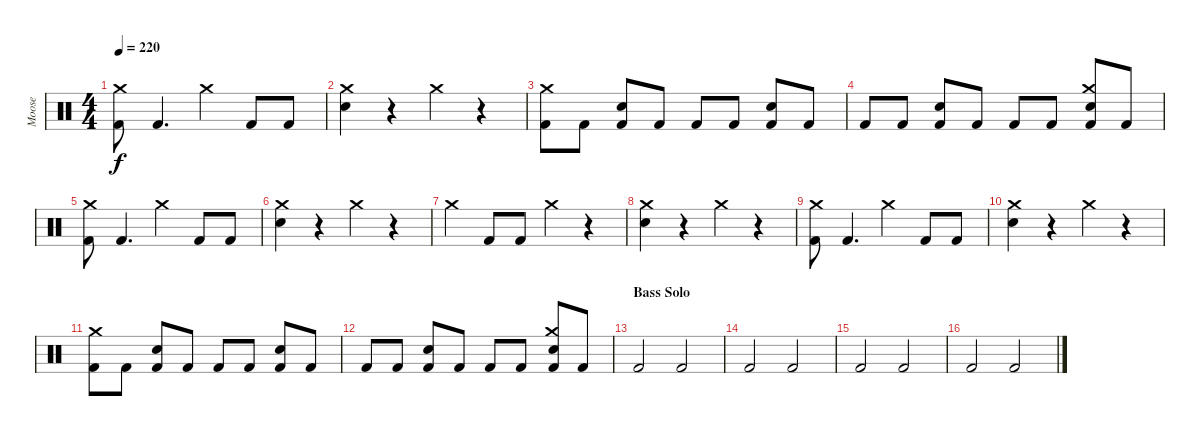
\track ("Moose" "Moose") {instrument percussion}
\staff {score}
\articulation defaults
\ts (4 4)
\tempo 220
\clef neutral
\ks c
("Kick (hit) 2" "Crash medium (hit)").8{dy f} "Kick (hit) 2".4{d} "Crash medium (hit)".4 "Kick (hit) 2".8 "Kick (hit) 2".8 |
("Snare (hit) 2" "Crash medium (hit)").4 r.4 "Crash medium (hit)".4 r.4 |
("Kick (hit) 2" "Crash medium (hit)").8 "Kick (hit) 2".8 ("Kick (hit) 2" "Snare (hit) 2").8 "Kick (hit) 2".8 "Kick (hit) 2".8 "Kick (hit) 2".8 ("Kick (hit) 2" "Snare (hit) 2").8 "Kick (hit) 2".8 |
"Kick (hit) 2".8 "Kick (hit) 2".8 ("Kick (hit) 2" "Snare (hit) 2").8 "Kick (hit) 2".8 "Kick (hit) 2".8 "Kick (hit) 2".8 ("Kick (hit) 2" "Snare (hit) 2" "Crash medium (hit)").8 "Kick (hit) 2".8 |
("Kick (hit) 2" "Crash medium (hit)").8 "Kick (hit) 2".4{d} "Crash medium (hit)".4 "Kick (hit) 2".8 "Kick (hit) 2".8 |
("Snare (hit) 2" "Crash medium (hit)").4 r.4 "Crash medium (hit)".4 r.4 |
"Crash medium (hit)".4 "Kick (hit) 2".8 "Kick (hit) 2".8 "Crash medium (hit)".4 r.4 |
("Snare (hit) 2" "Crash medium (hit)").4 r.4 "Crash medium (hit)".4 r.4 |
("Kick (hit) 2" "Crash medium (hit)").8 "Kick (hit) 2".4{d} "Crash medium (hit)".4 "Kick (hit) 2".8 "Kick (hit) 2".8 |
("Snare (hit) 2" "Crash medium (hit)").4 r.4 "Crash medium (hit)".4 r.4 |
("Kick (hit) 2" "Crash medium (hit)").8 "Kick (hit) 2".8 ("Kick (hit) 2" "Snare (hit) 2").8 "Kick (hit) 2".8 "Kick (hit) 2".8 "Kick (hit) 2".8 ("Kick (hit) 2" "Snare (hit) 2").8 "Kick (hit) 2".8 |
"Kick (hit) 2".8 "Kick (hit) 2".8 ("Kick (hit) 2" "Snare (hit) 2").8 "Kick (hit) 2".8 "Kick (hit) 2".8 "Kick (hit) 2".8 ("Kick (hit) 2" "Snare (hit) 2" "Crash medium (hit)").8 "Kick (hit) 2".8 |
\section ("" "Bass Solo")
"Kick (hit) 2".2 "Kick (hit) 2".2 |
"Kick (hit) 2".2 "Kick (hit) 2".2 |
"Kick (hit) 2".2 "Kick (hit) 2".2 |
"Kick (hit) 2".2 "Kick (hit) 2".2
